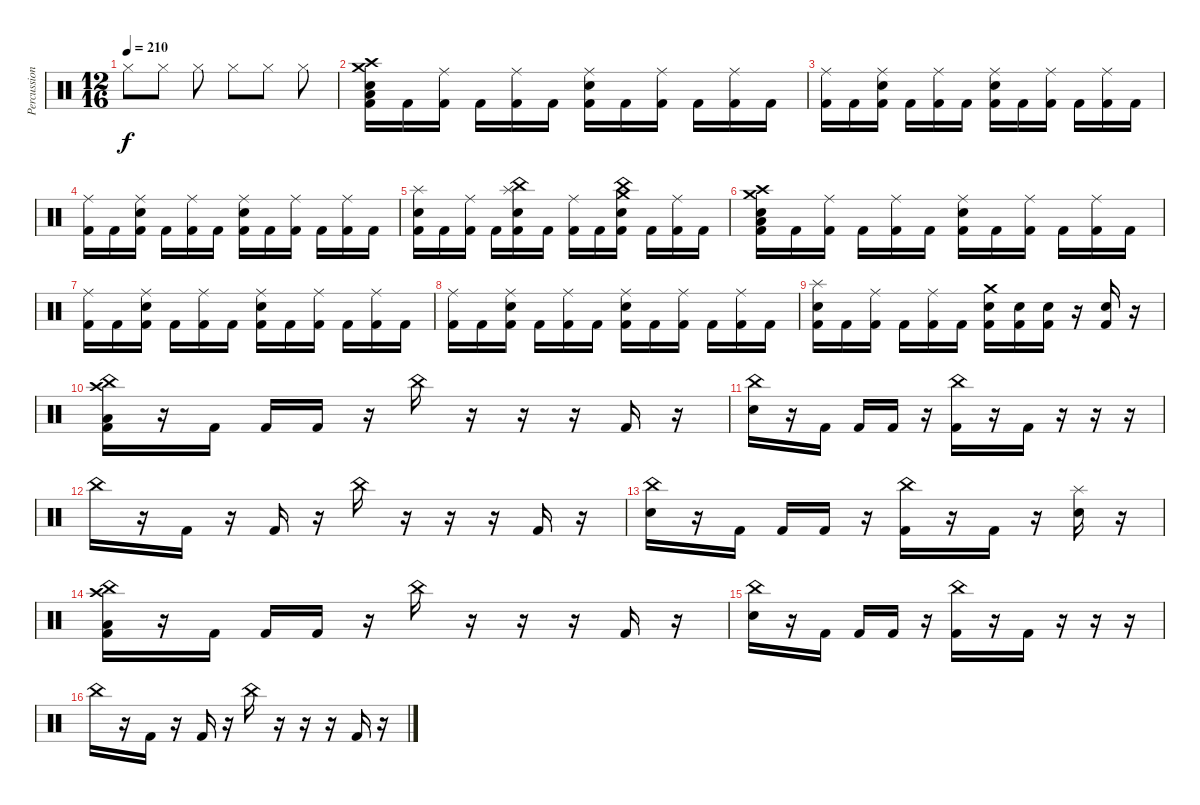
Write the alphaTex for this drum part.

\track ("Percussion" "Percussion") {instrument percussion}
\staff {score}
\articulation defaults
\ts (12 16)
\tempo 210
\clef neutral
\ks c "Hi-Hat (closed)".8{dy f} "Hi-Hat (closed)".8 "Hi-Hat (closed)".8 "Hi-Hat (closed)".8 "Hi-Hat (closed)".8 "Hi-Hat (closed)".8
|
("Crash high (hit)" "Crash medium (hit)" "Electric Snare (hit)" "Low Floor Tom (hit)" "Kick (hit) 2").16 "Kick (hit) 2".16 ("Ride (middle)" "Kick (hit) 2").16 "Kick (hit) 2".16 ("Ride (middle)" "Kick (hit) 2").16 "Kick (hit) 2".16 ("Ride (middle)" "Electric Snare (hit)" "Kick (hit) 2").16 "Kick (hit) 2".16 ("Ride (middle)" "Kick (hit) 2").16 "Kick (hit) 2".16 ("Ride (middle)" "Kick (hit) 2").16 "Kick (hit) 2".16 |
("Ride (middle)" "Kick (hit) 2").16 "Kick (hit) 2".16 ("Ride (middle)" "Electric Snare (hit)" "Kick (hit) 2").16 "Kick (hit) 2".16 ("Ride (middle)" "Kick (hit) 2").16 "Kick (hit) 2".16 ("Ride (middle)" "Electric Snare (hit)" "Kick (hit) 2").16 "Kick (hit) 2".16 ("Ride (middle)" "Kick (hit) 2").16 "Kick (hit) 2".16 ("Ride (middle)" "Kick (hit) 2").16 "Kick (hit) 2".16 |
("Ride (middle)" "Kick (hit) 2").16 "Kick (hit) 2".16 ("Ride (middle)" "Electric Snare (hit)" "Kick (hit) 2").16 "Kick (hit) 2".16 ("Ride (middle)" "Kick (hit) 2").16 "Kick (hit) 2".16 ("Ride (middle)" "Electric Snare (hit)" "Kick (hit) 2").16 "Kick (hit) 2".16 ("Ride (middle)" "Kick (hit) 2").16 "Kick (hit) 2".16 ("Ride (middle)" "Kick (hit) 2").16 "Kick (hit) 2".16 |
("Splash (hit)" "Electric Snare (hit)" "Kick (hit) 2").16 "Kick (hit) 2".16 ("Ride (middle)" "Kick (hit) 2").16 "Kick (hit) 2".16 ("China (hit)" "Splash (hit)" "Electric Snare (hit)" "Kick (hit) 2").16 "Kick (hit) 2".16 ("Ride (middle)" "Kick (hit) 2").16 "Kick (hit) 2".16 ("China (hit)" "Crash medium (hit)" "Electric Snare (hit)" "Kick (hit) 2").16 "Kick (hit) 2".16 ("Ride (middle)" "Kick (hit) 2").16 "Kick (hit) 2".16 |
("Crash high (hit)" "Crash medium (hit)" "Electric Snare (hit)" "Low Floor Tom (hit)" "Kick (hit) 2").16 "Kick (hit) 2".16 ("Ride (middle)" "Kick (hit) 2").16 "Kick (hit) 2".16 ("Ride (middle)" "Kick (hit) 2").16 "Kick (hit) 2".16 ("Ride (middle)" "Electric Snare (hit)" "Kick (hit) 2").16 "Kick (hit) 2".16 ("Ride (middle)" "Kick (hit) 2").16 "Kick (hit) 2".16 ("Ride (middle)" "Kick (hit) 2").16 "Kick (hit) 2".16 |
("Ride (middle)" "Kick (hit) 2").16 "Kick (hit) 2".16 ("Ride (middle)" "Electric Snare (hit)" "Kick (hit) 2").16 "Kick (hit) 2".16 ("Ride (middle)" "Kick (hit) 2").16 "Kick (hit) 2".16 ("Ride (middle)" "Electric Snare (hit)" "Kick (hit) 2").16 "Kick (hit) 2".16 ("Ride (middle)" "Kick (hit) 2").16 "Kick (hit) 2".16 ("Ride (middle)" "Kick (hit) 2").16 "Kick (hit) 2".16 |
("Ride (middle)" "Kick (hit) 2").16 "Kick (hit) 2".16 ("Ride (middle)" "Electric Snare (hit)" "Kick (hit) 2").16 "Kick (hit) 2".16 ("Ride (middle)" "Kick (hit) 2").16 "Kick (hit) 2".16 ("Ride (middle)" "Electric Snare (hit)" "Kick (hit) 2").16 "Kick (hit) 2".16 ("Ride (middle)" "Kick (hit) 2").16 "Kick (hit) 2".16 ("Ride (middle)" "Kick (hit) 2").16 "Kick (hit) 2".16 |
("Splash (hit)" "Electric Snare (hit)" "Kick (hit) 2").16 "Kick (hit) 2".16 ("Ride (middle)" "Kick (hit) 2").16 "Kick (hit) 2".16 ("Ride (middle)" "Kick (hit) 2").16 "Kick (hit) 2".16 ("Crash medium (hit)" "Electric Snare (hit)" "Kick (hit) 2").16 ("Electric Snare (hit)" "Kick (hit) 2").16 ("Electric Snare (hit)" "Kick (hit) 2").16 r.16 ("Electric Snare (hit)" "Kick (hit) 2").16 r.16 |
("China (hit)" "Crash high (hit)" "Low Floor Tom (hit)" "Kick (hit) 2").16 r.16 "Kick (hit) 2".16 "Kick (hit) 2".16 "Kick (hit) 2".16 r.16 "China (hit)".16 r.16 r.16 r.16 "Kick (hit) 2".16 r.16 |
("China (hit)" "Electric Snare (hit)").16 r.16 "Kick (hit) 2".16 "Kick (hit) 2".16 "Kick (hit) 2".16 r.16 ("China (hit)" "Kick (hit) 2").16 r.16 "Kick (hit) 2".16 r.16 r.16 r.16 |
"China (hit)".16 r.16 "Kick (hit) 2".16 r.16 "Kick (hit) 2".16 r.16 "China (hit)".16 r.16 r.16 r.16 "Kick (hit) 2".16 r.16 |
("China (hit)" "Electric Snare (hit)").16 r.16 "Kick (hit) 2".16 "Kick (hit) 2".16 "Kick (hit) 2".16 r.16 ("China (hit)" "Kick (hit) 2").16 r.16 "Kick (hit) 2".16 r.16 ("Splash (hit)" "Electric Snare (hit)").16 r.16 |
("China (hit)" "Crash high (hit)" "Low Floor Tom (hit)" "Kick (hit) 2").16 r.16 "Kick (hit) 2".16 "Kick (hit) 2".16 "Kick (hit) 2".16 r.16 "China (hit)".16 r.16 r.16 r.16 "Kick (hit) 2".16 r.16 |
("China (hit)" "Electric Snare (hit)").16 r.16 "Kick (hit) 2".16 "Kick (hit) 2".16 "Kick (hit) 2".16 r.16 ("China (hit)" "Kick (hit) 2").16 r.16 "Kick (hit) 2".16 r.16 r.16 r.16 |
"China (hit)".16 r.16 "Kick (hit) 2".16 r.16 "Kick (hit) 2".16 r.16 "China (hit)".16 r.16 r.16 r.16 "Kick (hit) 2".16 r.16
